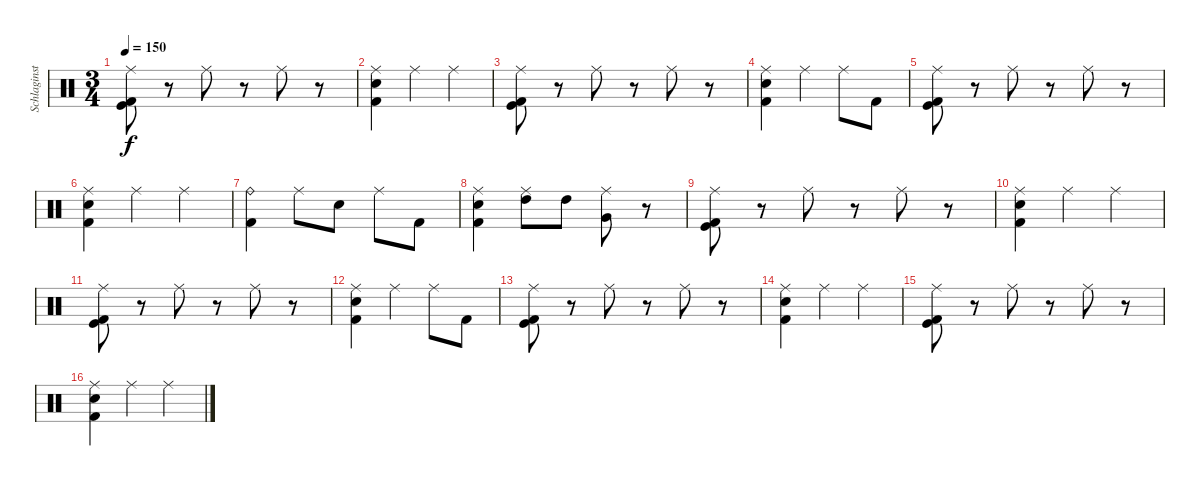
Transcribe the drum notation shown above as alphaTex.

\track ("Schlaginstrumente - Auswahl" "Schlaginst") {instrument percussion}
\staff {score}
\articulation defaults
\ts (3 4)
\tempo 150
\clef neutral
\ks c
("Ride (middle)" "Kick (hit)" "Kick (hit) 2").8{dy f} r.8 "Ride (middle)".8 r.8 "Ride (middle)".8 r.8 |
("Ride (middle)" "Electric Snare (hit)" "Kick (hit) 2").4 "Ride (middle)".4 "Ride (middle)".4 |
("Ride (middle)" "Kick (hit)" "Kick (hit) 2").8 r.8 "Ride (middle)".8 r.8 "Ride (middle)".8 r.8 |
("Ride (middle)" "Electric Snare (hit)" "Kick (hit) 2").4 "Ride (middle)".4 "Ride (middle)".8 "Kick (hit) 2".8 |
("Ride (middle)" "Kick (hit)" "Kick (hit) 2").8 r.8 "Ride (middle)".8 r.8 "Ride (middle)".8 r.8 |
("Ride (middle)" "Electric Snare (hit)" "Kick (hit) 2").4 "Ride (middle)".4 "Ride (middle)".4 |
("Ride (bell)" "Kick (hit) 2").4 "Ride (middle)".8 "Electric Snare (hit)".8 "Ride (middle)".8 "Kick (hit) 2".8 |
("Ride (middle)" "Electric Snare (hit)" "Kick (hit) 2").4 ("Ride (middle)" "High Tom (hit)").8 "High Tom (hit)".8 ("Ride (middle)" "Very Low Tom (hit)").8 r.8 |
("Ride (middle)" "Kick (hit)" "Kick (hit) 2").8 r.8 "Ride (middle)".8 r.8 "Ride (middle)".8 r.8 |
("Ride (middle)" "Electric Snare (hit)" "Kick (hit) 2").4 "Ride (middle)".4 "Ride (middle)".4 |
("Ride (middle)" "Kick (hit)" "Kick (hit) 2").8 r.8 "Ride (middle)".8 r.8 "Ride (middle)".8 r.8 |
("Ride (middle)" "Electric Snare (hit)" "Kick (hit) 2").4 "Ride (middle)".4 "Ride (middle)".8 "Kick (hit) 2".8 |
("Ride (middle)" "Kick (hit)" "Kick (hit) 2").8 r.8 "Ride (middle)".8 r.8 "Ride (middle)".8 r.8 |
("Ride (middle)" "Electric Snare (hit)" "Kick (hit) 2").4 "Ride (middle)".4 "Ride (middle)".4 |
("Ride (middle)" "Kick (hit)" "Kick (hit) 2").8 r.8 "Ride (middle)".8 r.8 "Ride (middle)".8 r.8 |
("Ride (middle)" "Electric Snare (hit)" "Kick (hit) 2").4 "Ride (middle)".4 "Ride (middle)".4
